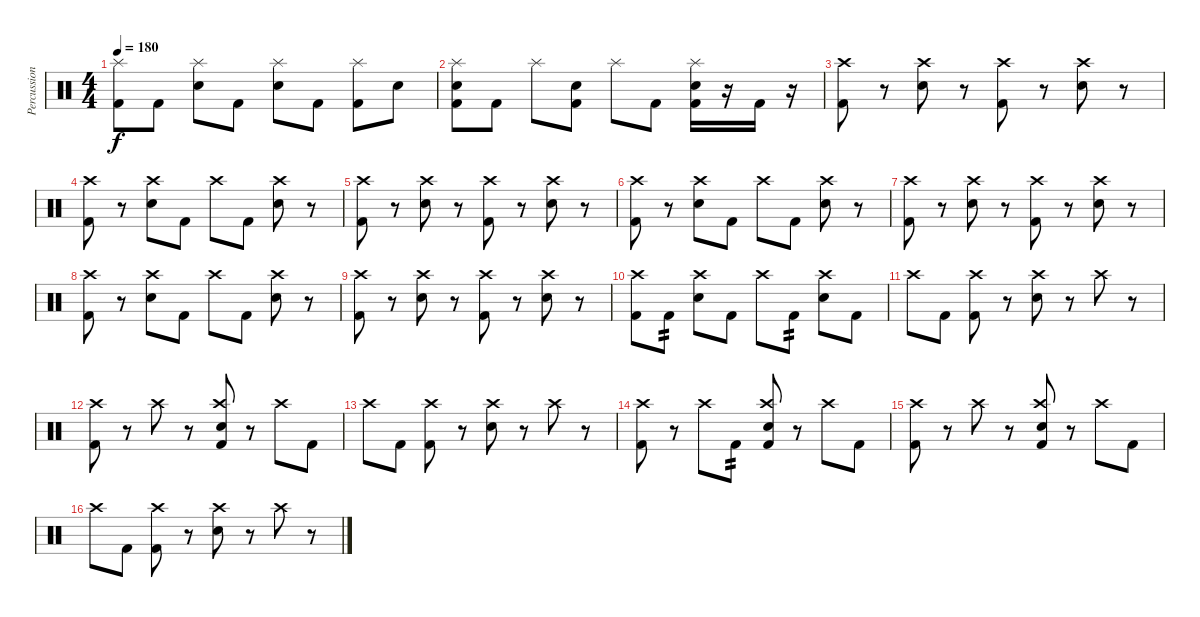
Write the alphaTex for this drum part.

\track ("Percussion" "Percussion") {instrument percussion}
\staff {score}
\articulation defaults
\ts (4 4)
\tempo 180
\clef neutral
\ks c
("Splash (hit)" "Kick (hit) 2").8{dy f} "Kick (hit) 2".8 ("Splash (hit)" "Snare (hit) 2").8 "Kick (hit) 2".8 ("Splash (hit)" "Snare (hit) 2").8 "Kick (hit) 2".8 ("Splash (hit)" "Kick (hit) 2").8 "Snare (hit) 2".8 |
("Splash (hit)" "Snare (hit) 2" "Kick (hit) 2").8 "Kick (hit) 2".8 "Splash (hit)".8 ("Snare (hit) 2" "Kick (hit) 2").8 "Splash (hit)".8 "Kick (hit) 2".8 ("Splash (hit)" "Snare (hit) 2" "Kick (hit) 2").16 r.16 "Kick (hit) 2".16 r.16 |
("Crash high (hit)" "Kick (hit) 2").8 r.8 ("Crash high (hit)" "Electric Snare (hit)").8 r.8 ("Crash high (hit)" "Kick (hit) 2").8 r.8 ("Crash high (hit)" "Electric Snare (hit)").8 r.8 |
("Crash high (hit)" "Kick (hit) 2").8 r.8 ("Crash high (hit)" "Electric Snare (hit)").8 "Kick (hit) 2".8 "Crash high (hit)".8 "Kick (hit) 2".8 ("Crash high (hit)" "Electric Snare (hit)").8 r.8 |
("Crash high (hit)" "Kick (hit) 2").8 r.8 ("Crash high (hit)" "Electric Snare (hit)").8 r.8 ("Crash high (hit)" "Kick (hit) 2").8 r.8 ("Crash high (hit)" "Electric Snare (hit)").8 r.8 |
("Crash high (hit)" "Kick (hit) 2").8 r.8 ("Crash high (hit)" "Electric Snare (hit)").8 "Kick (hit) 2".8 "Crash high (hit)".8 "Kick (hit) 2".8 ("Crash high (hit)" "Electric Snare (hit)").8 r.8 |
("Crash high (hit)" "Kick (hit) 2").8 r.8 ("Crash high (hit)" "Electric Snare (hit)").8 r.8 ("Crash high (hit)" "Kick (hit) 2").8 r.8 ("Crash high (hit)" "Electric Snare (hit)").8 r.8 |
("Crash high (hit)" "Kick (hit) 2").8 r.8 ("Crash high (hit)" "Electric Snare (hit)").8 "Kick (hit) 2".8 "Crash high (hit)".8 "Kick (hit) 2".8 ("Crash high (hit)" "Electric Snare (hit)").8 r.8 |
("Crash high (hit)" "Kick (hit) 2").8 r.8 ("Crash high (hit)" "Electric Snare (hit)").8 r.8 ("Crash high (hit)" "Kick (hit) 2").8 r.8 ("Crash high (hit)" "Electric Snare (hit)").8 r.8 |
("Crash high (hit)" "Kick (hit) 2").8 "Kick (hit) 2".8{tp 2} ("Crash high (hit)" "Electric Snare (hit)").8 "Kick (hit) 2".8 "Crash high (hit)".8 "Kick (hit) 2".8{tp 2} ("Crash high (hit)" "Electric Snare (hit)").8 "Kick (hit) 2".8 |
"Crash high (hit)".8 "Kick (hit) 2".8 ("Crash high (hit)" "Kick (hit) 2").8 r.8 ("Crash high (hit)" "Electric Snare (hit)").8 r.8 "Crash high (hit)".8 r.8 |
("Crash high (hit)" "Kick (hit) 2").8 r.8 "Crash high (hit)".8 r.8 ("Crash high (hit)" "Electric Snare (hit)" "Kick (hit) 2").8 r.8 "Crash high (hit)".8 "Kick (hit) 2".8 |
"Crash high (hit)".8 "Kick (hit) 2".8 ("Crash high (hit)" "Kick (hit) 2").8 r.8 ("Crash high (hit)" "Electric Snare (hit)").8 r.8 "Crash high (hit)".8 r.8 |
("Crash high (hit)" "Kick (hit) 2").8 r.8 "Crash high (hit)".8 "Kick (hit) 2".8{tp 2} ("Crash high (hit)" "Electric Snare (hit)" "Kick (hit) 2").8 r.8 "Crash high (hit)".8 "Kick (hit) 2".8 |
("Crash high (hit)" "Kick (hit) 2").8 r.8 "Crash high (hit)".8 r.8 ("Crash high (hit)" "Electric Snare (hit)" "Kick (hit) 2").8 r.8 "Crash high (hit)".8 "Kick (hit) 2".8 |
"Crash high (hit)".8 "Kick (hit) 2".8 ("Crash high (hit)" "Kick (hit) 2").8 r.8 ("Crash high (hit)" "Electric Snare (hit)").8 r.8 "Crash high (hit)".8 r.8
